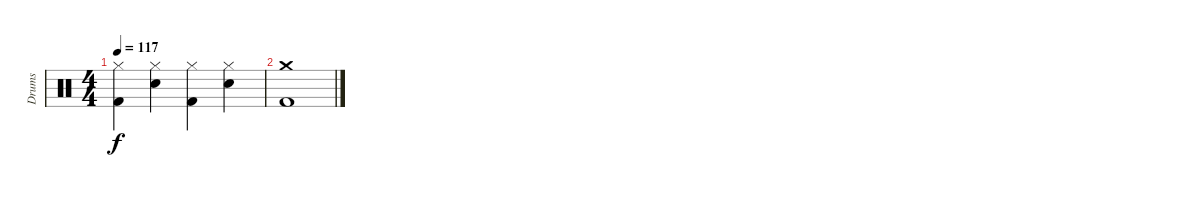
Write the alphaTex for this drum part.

\track ("Drums" "Drums") {instrument percussion}
\staff {score}
\articulation defaults
\ts (4 4)
\tempo 117
\clef neutral
\ks c
("Hi-Hat (closed)" "Kick (hit) 2").4{dy f} ("Hi-Hat (closed)" "Snare (hit) 2").4 ("Hi-Hat (closed)" "Kick (hit) 2").4 ("Hi-Hat (closed)" "Snare (hit) 2").4 |
("Crash medium (hit)" "Kick (hit) 2").1
